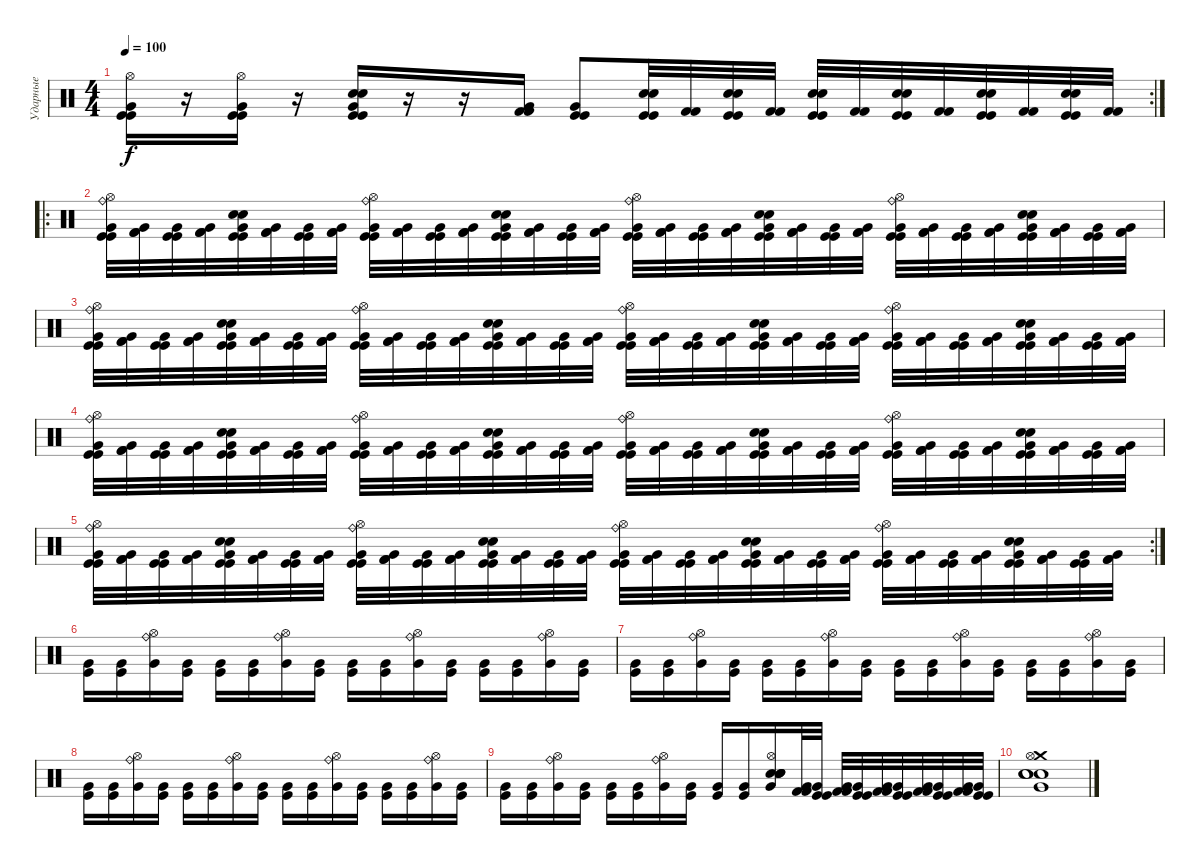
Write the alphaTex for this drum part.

\track ("Ударные" "Ударные") {instrument percussion}
\staff {score}
\articulation defaults
\rc 2
\ts (4 4)
\tempo 100
\clef neutral
\ks c
("Very Low Tom (hit)" "Kick (hit)" "Kick (hit)" "Hi-Hat (open)").16{dy f} r.16 ("Very Low Tom (hit)" "Kick (hit)" "Kick (hit)" "Hi-Hat (open)").16 r.16 ("Very Low Tom (hit)" "Kick (hit)" "Kick (hit)" "Electric Snare (hit)" "Electric Snare (hit)").16 r.16 r.16 ("Very Low Tom (hit)" "Kick (hit) 2" "Kick (hit) 2").16 ("Very Low Tom (hit)" "Kick (hit)" "Kick (hit)").8 ("Kick (hit)" "Kick (hit)" "Snare (hit) 2" "Electric Snare (hit)").32 ("Kick (hit) 2" "Kick (hit) 2").32 ("Kick (hit)" "Kick (hit)" "Snare (hit) 2" "Electric Snare (hit)").32 ("Kick (hit) 2" "Kick (hit) 2").32 ("Kick (hit)" "Kick (hit)" "Snare (hit) 2" "Electric Snare (hit)").32 ("Kick (hit) 2" "Kick (hit) 2").32 ("Kick (hit)" "Kick (hit)" "Snare (hit) 2" "Electric Snare (hit)").32 ("Kick (hit) 2" "Kick (hit) 2").32 ("Kick (hit)" "Kick (hit)" "Snare (hit) 2" "Electric Snare (hit)").32 ("Kick (hit) 2" "Kick (hit) 2").32 ("Kick (hit)" "Kick (hit)" "Snare (hit) 2" "Electric Snare (hit)").32 ("Kick (hit) 2" "Kick (hit) 2").32 |
\ro
("Ride (bell)" "Very Low Tom (hit)" "Kick (hit)" "Kick (hit)" "Hi-Hat (open)").32 ("Very Low Tom (hit)" "Kick (hit) 2" "Kick (hit) 2").32 ("Very Low Tom (hit)" "Kick (hit)" "Kick (hit)").32 ("Very Low Tom (hit)" "Kick (hit) 2" "Kick (hit) 2").32 ("Very Low Tom (hit)" "Kick (hit)" "Kick (hit)" "Electric Snare (hit)" "Electric Snare (hit)").32 ("Very Low Tom (hit)" "Kick (hit) 2" "Kick (hit) 2").32 ("Very Low Tom (hit)" "Kick (hit)" "Kick (hit)").32 ("Very Low Tom (hit)" "Kick (hit) 2" "Kick (hit) 2").32 ("Ride (bell)" "Very Low Tom (hit)" "Kick (hit)" "Kick (hit)" "Hi-Hat (open)").32 ("Very Low Tom (hit)" "Kick (hit) 2" "Kick (hit) 2").32 ("Very Low Tom (hit)" "Kick (hit)" "Kick (hit)").32 ("Very Low Tom (hit)" "Kick (hit) 2" "Kick (hit) 2").32 ("Very Low Tom (hit)" "Kick (hit)" "Kick (hit)" "Electric Snare (hit)" "Electric Snare (hit)").32 ("Very Low Tom (hit)" "Kick (hit) 2" "Kick (hit) 2").32 ("Very Low Tom (hit)" "Kick (hit)" "Kick (hit)").32 ("Very Low Tom (hit)" "Kick (hit) 2" "Kick (hit) 2").32 ("Ride (bell)" "Very Low Tom (hit)" "Kick (hit)" "Kick (hit)" "Hi-Hat (open)").32 ("Very Low Tom (hit)" "Kick (hit) 2" "Kick (hit) 2").32 ("Very Low Tom (hit)" "Kick (hit)" "Kick (hit)").32 ("Very Low Tom (hit)" "Kick (hit) 2" "Kick (hit) 2").32 ("Very Low Tom (hit)" "Kick (hit)" "Kick (hit)" "Electric Snare (hit)" "Electric Snare (hit)").32 ("Very Low Tom (hit)" "Kick (hit) 2" "Kick (hit) 2").32 ("Very Low Tom (hit)" "Kick (hit)" "Kick (hit)").32 ("Very Low Tom (hit)" "Kick (hit) 2" "Kick (hit) 2").32 ("Ride (bell)" "Very Low Tom (hit)" "Kick (hit)" "Kick (hit)" "Hi-Hat (open)").32 ("Very Low Tom (hit)" "Kick (hit) 2" "Kick (hit) 2").32 ("Very Low Tom (hit)" "Kick (hit)" "Kick (hit)").32 ("Very Low Tom (hit)" "Kick (hit) 2" "Kick (hit) 2").32 ("Very Low Tom (hit)" "Kick (hit)" "Kick (hit)" "Electric Snare (hit)" "Electric Snare (hit)").32 ("Very Low Tom (hit)" "Kick (hit) 2" "Kick (hit) 2").32 ("Very Low Tom (hit)" "Kick (hit)" "Kick (hit)").32 ("Very Low Tom (hit)" "Kick (hit) 2" "Kick (hit) 2").32 |
("Ride (bell)" "Very Low Tom (hit)" "Kick (hit)" "Kick (hit)" "Hi-Hat (open)").32 ("Very Low Tom (hit)" "Kick (hit) 2" "Kick (hit) 2").32 ("Very Low Tom (hit)" "Kick (hit)" "Kick (hit)").32 ("Very Low Tom (hit)" "Kick (hit) 2" "Kick (hit) 2").32 ("Very Low Tom (hit)" "Kick (hit)" "Kick (hit)" "Electric Snare (hit)" "Electric Snare (hit)").32 ("Very Low Tom (hit)" "Kick (hit) 2" "Kick (hit) 2").32 ("Very Low Tom (hit)" "Kick (hit)" "Kick (hit)").32 ("Very Low Tom (hit)" "Kick (hit) 2" "Kick (hit) 2").32 ("Ride (bell)" "Very Low Tom (hit)" "Kick (hit)" "Kick (hit)" "Hi-Hat (open)").32 ("Very Low Tom (hit)" "Kick (hit) 2" "Kick (hit) 2").32 ("Very Low Tom (hit)" "Kick (hit)" "Kick (hit)").32 ("Very Low Tom (hit)" "Kick (hit) 2" "Kick (hit) 2").32 ("Very Low Tom (hit)" "Kick (hit)" "Kick (hit)" "Electric Snare (hit)" "Electric Snare (hit)").32 ("Very Low Tom (hit)" "Kick (hit) 2" "Kick (hit) 2").32 ("Very Low Tom (hit)" "Kick (hit)" "Kick (hit)").32 ("Very Low Tom (hit)" "Kick (hit) 2" "Kick (hit) 2").32 ("Ride (bell)" "Very Low Tom (hit)" "Kick (hit)" "Kick (hit)" "Hi-Hat (open)").32 ("Very Low Tom (hit)" "Kick (hit) 2" "Kick (hit) 2").32 ("Very Low Tom (hit)" "Kick (hit)" "Kick (hit)").32 ("Very Low Tom (hit)" "Kick (hit) 2" "Kick (hit) 2").32 ("Very Low Tom (hit)" "Kick (hit)" "Kick (hit)" "Electric Snare (hit)" "Electric Snare (hit)").32 ("Very Low Tom (hit)" "Kick (hit) 2" "Kick (hit) 2").32 ("Very Low Tom (hit)" "Kick (hit)" "Kick (hit)").32 ("Very Low Tom (hit)" "Kick (hit) 2" "Kick (hit) 2").32 ("Ride (bell)" "Very Low Tom (hit)" "Kick (hit)" "Kick (hit)" "Hi-Hat (open)").32 ("Very Low Tom (hit)" "Kick (hit) 2" "Kick (hit) 2").32 ("Very Low Tom (hit)" "Kick (hit)" "Kick (hit)").32 ("Very Low Tom (hit)" "Kick (hit) 2" "Kick (hit) 2").32 ("Very Low Tom (hit)" "Kick (hit)" "Kick (hit)" "Electric Snare (hit)" "Electric Snare (hit)").32 ("Very Low Tom (hit)" "Kick (hit) 2" "Kick (hit) 2").32 ("Very Low Tom (hit)" "Kick (hit)" "Kick (hit)").32 ("Very Low Tom (hit)" "Kick (hit) 2" "Kick (hit) 2").32 |
("Ride (bell)" "Very Low Tom (hit)" "Kick (hit)" "Kick (hit)" "Hi-Hat (open)").32 ("Very Low Tom (hit)" "Kick (hit) 2" "Kick (hit) 2").32 ("Very Low Tom (hit)" "Kick (hit)" "Kick (hit)").32 ("Very Low Tom (hit)" "Kick (hit) 2" "Kick (hit) 2").32 ("Very Low Tom (hit)" "Kick (hit)" "Kick (hit)" "Electric Snare (hit)" "Electric Snare (hit)").32 ("Very Low Tom (hit)" "Kick (hit) 2" "Kick (hit) 2").32 ("Very Low Tom (hit)" "Kick (hit)" "Kick (hit)").32 ("Very Low Tom (hit)" "Kick (hit) 2" "Kick (hit) 2").32 ("Ride (bell)" "Very Low Tom (hit)" "Kick (hit)" "Kick (hit)" "Hi-Hat (open)").32 ("Very Low Tom (hit)" "Kick (hit) 2" "Kick (hit) 2").32 ("Very Low Tom (hit)" "Kick (hit)" "Kick (hit)").32 ("Very Low Tom (hit)" "Kick (hit) 2" "Kick (hit) 2").32 ("Very Low Tom (hit)" "Kick (hit)" "Kick (hit)" "Electric Snare (hit)" "Electric Snare (hit)").32 ("Very Low Tom (hit)" "Kick (hit) 2" "Kick (hit) 2").32 ("Very Low Tom (hit)" "Kick (hit)" "Kick (hit)").32 ("Very Low Tom (hit)" "Kick (hit) 2" "Kick (hit) 2").32 ("Ride (bell)" "Very Low Tom (hit)" "Kick (hit)" "Kick (hit)" "Hi-Hat (open)").32 ("Very Low Tom (hit)" "Kick (hit) 2" "Kick (hit) 2").32 ("Very Low Tom (hit)" "Kick (hit)" "Kick (hit)").32 ("Very Low Tom (hit)" "Kick (hit) 2" "Kick (hit) 2").32 ("Very Low Tom (hit)" "Kick (hit)" "Kick (hit)" "Electric Snare (hit)" "Electric Snare (hit)").32 ("Very Low Tom (hit)" "Kick (hit) 2" "Kick (hit) 2").32 ("Very Low Tom (hit)" "Kick (hit)" "Kick (hit)").32 ("Very Low Tom (hit)" "Kick (hit) 2" "Kick (hit) 2").32 ("Ride (bell)" "Very Low Tom (hit)" "Kick (hit)" "Kick (hit)" "Hi-Hat (open)").32 ("Very Low Tom (hit)" "Kick (hit) 2" "Kick (hit) 2").32 ("Very Low Tom (hit)" "Kick (hit)" "Kick (hit)").32 ("Very Low Tom (hit)" "Kick (hit) 2" "Kick (hit) 2").32 ("Very Low Tom (hit)" "Kick (hit)" "Kick (hit)" "Electric Snare (hit)" "Electric Snare (hit)").32 ("Very Low Tom (hit)" "Kick (hit) 2" "Kick (hit) 2").32 ("Very Low Tom (hit)" "Kick (hit)" "Kick (hit)").32 ("Very Low Tom (hit)" "Kick (hit) 2" "Kick (hit) 2").32 |
\rc 2
("Ride (bell)" "Very Low Tom (hit)" "Kick (hit)" "Kick (hit)" "Hi-Hat (open)").32 ("Very Low Tom (hit)" "Kick (hit) 2" "Kick (hit) 2").32 ("Very Low Tom (hit)" "Kick (hit)" "Kick (hit)").32 ("Very Low Tom (hit)" "Kick (hit) 2" "Kick (hit) 2").32 ("Very Low Tom (hit)" "Kick (hit)" "Kick (hit)" "Electric Snare (hit)" "Electric Snare (hit)").32 ("Very Low Tom (hit)" "Kick (hit) 2" "Kick (hit) 2").32 ("Very Low Tom (hit)" "Kick (hit)" "Kick (hit)").32 ("Very Low Tom (hit)" "Kick (hit) 2" "Kick (hit) 2").32 ("Ride (bell)" "Very Low Tom (hit)" "Kick (hit)" "Kick (hit)" "Hi-Hat (open)").32 ("Very Low Tom (hit)" "Kick (hit) 2" "Kick (hit) 2").32 ("Very Low Tom (hit)" "Kick (hit)" "Kick (hit)").32 ("Very Low Tom (hit)" "Kick (hit) 2" "Kick (hit) 2").32 ("Very Low Tom (hit)" "Kick (hit)" "Kick (hit)" "Electric Snare (hit)" "Electric Snare (hit)").32 ("Very Low Tom (hit)" "Kick (hit) 2" "Kick (hit) 2").32 ("Very Low Tom (hit)" "Kick (hit)" "Kick (hit)").32 ("Very Low Tom (hit)" "Kick (hit) 2" "Kick (hit) 2").32 ("Ride (bell)" "Very Low Tom (hit)" "Kick (hit)" "Kick (hit)" "Hi-Hat (open)").32 ("Very Low Tom (hit)" "Kick (hit) 2" "Kick (hit) 2").32 ("Very Low Tom (hit)" "Kick (hit)" "Kick (hit)").32 ("Very Low Tom (hit)" "Kick (hit) 2" "Kick (hit) 2").32 ("Very Low Tom (hit)" "Kick (hit)" "Kick (hit)" "Electric Snare (hit)" "Electric Snare (hit)").32 ("Very Low Tom (hit)" "Kick (hit) 2" "Kick (hit) 2").32 ("Very Low Tom (hit)" "Kick (hit)" "Kick (hit)").32 ("Very Low Tom (hit)" "Kick (hit) 2" "Kick (hit) 2").32 ("Ride (bell)" "Very Low Tom (hit)" "Kick (hit)" "Kick (hit)" "Hi-Hat (open)").32 ("Very Low Tom (hit)" "Kick (hit) 2" "Kick (hit) 2").32 ("Very Low Tom (hit)" "Kick (hit)" "Kick (hit)").32 ("Very Low Tom (hit)" "Kick (hit) 2" "Kick (hit) 2").32 ("Very Low Tom (hit)" "Kick (hit)" "Kick (hit)" "Electric Snare (hit)" "Electric Snare (hit)").32 ("Very Low Tom (hit)" "Kick (hit) 2" "Kick (hit) 2").32 ("Very Low Tom (hit)" "Kick (hit)" "Kick (hit)").32 ("Very Low Tom (hit)" "Kick (hit) 2" "Kick (hit) 2").32 |
("Kick (hit)" "Very Low Tom (hit)").16 ("Kick (hit)" "Very Low Tom (hit)").16 ("Ride (bell)" "Hi-Hat (open)" "Very Low Tom (hit)").16 ("Kick (hit)" "Very Low Tom (hit)").16 ("Kick (hit)" "Very Low Tom (hit)").16 ("Kick (hit)" "Very Low Tom (hit)").16 ("Ride (bell)" "Hi-Hat (open)" "Very Low Tom (hit)").16 ("Kick (hit)" "Very Low Tom (hit)").16 ("Kick (hit)" "Very Low Tom (hit)").16 ("Kick (hit)" "Very Low Tom (hit)").16 ("Ride (bell)" "Hi-Hat (open)" "Very Low Tom (hit)").16 ("Kick (hit)" "Very Low Tom (hit)").16 ("Kick (hit)" "Very Low Tom (hit)").16 ("Kick (hit)" "Very Low Tom (hit)").16 ("Ride (bell)" "Hi-Hat (open)" "Very Low Tom (hit)").16 ("Kick (hit)" "Very Low Tom (hit)").16 |
("Kick (hit)" "Very Low Tom (hit)").16 ("Kick (hit)" "Very Low Tom (hit)").16 ("Ride (bell)" "Hi-Hat (open)" "Very Low Tom (hit)").16 ("Kick (hit)" "Very Low Tom (hit)").16 ("Kick (hit)" "Very Low Tom (hit)").16 ("Kick (hit)" "Very Low Tom (hit)").16 ("Ride (bell)" "Hi-Hat (open)" "Very Low Tom (hit)").16 ("Kick (hit)" "Very Low Tom (hit)").16 ("Kick (hit)" "Very Low Tom (hit)").16 ("Kick (hit)" "Very Low Tom (hit)").16 ("Ride (bell)" "Hi-Hat (open)" "Very Low Tom (hit)").16 ("Kick (hit)" "Very Low Tom (hit)").16 ("Kick (hit)" "Very Low Tom (hit)").16 ("Kick (hit)" "Very Low Tom (hit)").16 ("Ride (bell)" "Hi-Hat (open)" "Very Low Tom (hit)").16 ("Kick (hit)" "Very Low Tom (hit)").16 |
("Kick (hit)" "Very Low Tom (hit)").16 ("Kick (hit)" "Very Low Tom (hit)").16 ("Ride (bell)" "Hi-Hat (open)" "Very Low Tom (hit)").16 ("Kick (hit)" "Very Low Tom (hit)").16 ("Kick (hit)" "Very Low Tom (hit)").16 ("Kick (hit)" "Very Low Tom (hit)").16 ("Ride (bell)" "Hi-Hat (open)" "Very Low Tom (hit)").16 ("Kick (hit)" "Very Low Tom (hit)").16 ("Kick (hit)" "Very Low Tom (hit)").16 ("Kick (hit)" "Very Low Tom (hit)").16 ("Ride (bell)" "Hi-Hat (open)" "Very Low Tom (hit)").16 ("Kick (hit)" "Very Low Tom (hit)").16 ("Kick (hit)" "Very Low Tom (hit)").16 ("Kick (hit)" "Very Low Tom (hit)").16 ("Ride (bell)" "Hi-Hat (open)" "Very Low Tom (hit)").16 ("Kick (hit)" "Very Low Tom (hit)").16 |
("Kick (hit)" "Very Low Tom (hit)").16 ("Kick (hit)" "Very Low Tom (hit)").16 ("Ride (bell)" "Hi-Hat (open)" "Very Low Tom (hit)").16 ("Kick (hit)" "Very Low Tom (hit)").16 ("Kick (hit)" "Very Low Tom (hit)").16 ("Kick (hit)" "Very Low Tom (hit)").16 ("Ride (bell)" "Hi-Hat (open)" "Very Low Tom (hit)").16 ("Kick (hit)" "Very Low Tom (hit)").16 ("Kick (hit)" "Very Low Tom (hit)").16 ("Kick (hit)" "Very Low Tom (hit)").16 ("Electric Snare (hit)" "Electric Snare (hit)" "Hi-Hat (open)" "Very Low Tom (hit)" "Electric Snare (hit)" "Electric Snare (hit)").16 ("Very Low Tom (hit)" "Kick (hit) 2" "Kick (hit) 2").32 ("Very Low Tom (hit)" "Kick (hit)" "Kick (hit)").32 ("Very Low Tom (hit)" "Kick (hit) 2" "Kick (hit) 2").32 ("Very Low Tom (hit)" "Kick (hit)" "Kick (hit)").32 ("Very Low Tom (hit)" "Kick (hit) 2" "Kick (hit) 2").32 ("Very Low Tom (hit)" "Kick (hit)" "Kick (hit)").32 ("Very Low Tom (hit)" "Kick (hit) 2" "Kick (hit) 2").32 ("Very Low Tom (hit)" "Kick (hit)" "Kick (hit)").32 ("Very Low Tom (hit)" "Kick (hit) 2" "Kick (hit) 2").32 ("Very Low Tom (hit)" "Kick (hit)" "Kick (hit)").32 |
("Electric Snare (hit)" "Electric Snare (hit)" "Crash medium (hit)" "Very Low Tom (hit)" "Electric Snare (hit)" "Hi-Hat (open)").1
